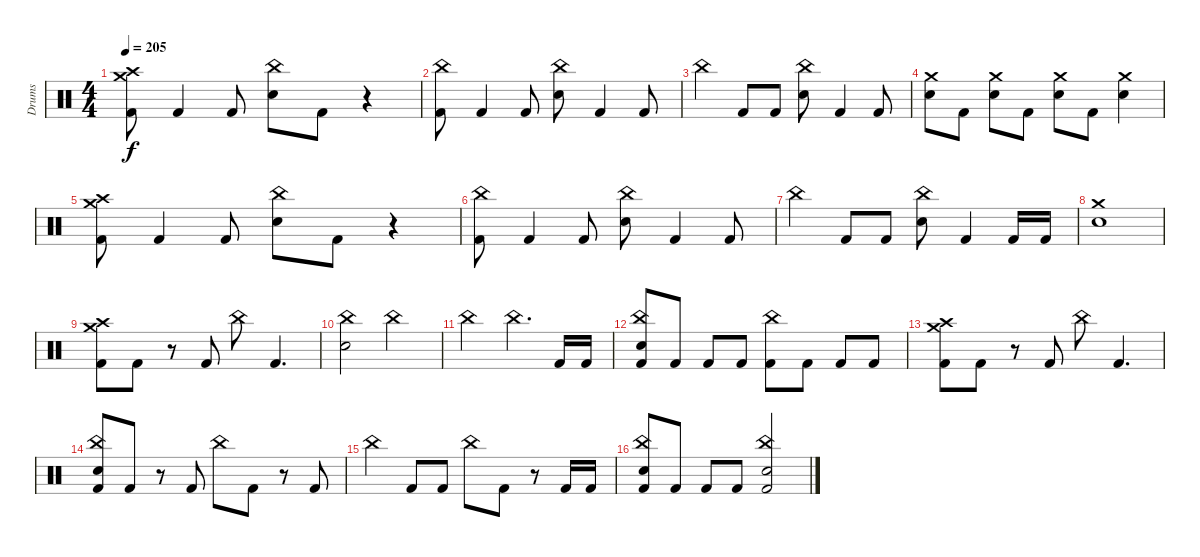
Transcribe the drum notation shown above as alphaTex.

\track ("Drums" "Drums") {instrument percussion}
\staff {score}
\articulation defaults
\ts (4 4)
\tempo 205
\clef neutral
\ks c
("Crash medium (hit)" "Crash high (hit)" "Kick (hit) 2").8{dy f} "Kick (hit) 2".4 "Kick (hit) 2".8 ("China (hit)" "Electric Snare (hit)").8 "Kick (hit) 2".8 r.4 |
("China (hit)" "Kick (hit) 2").8 "Kick (hit) 2".4 "Kick (hit) 2".8 ("China (hit)" "Electric Snare (hit)").8 "Kick (hit) 2".4 "Kick (hit) 2".8 |
"China (hit)".4 "Kick (hit) 2".8 "Kick (hit) 2".8 ("China (hit)" "Electric Snare (hit)").8 "Kick (hit) 2".4 "Kick (hit) 2".8 |
("Crash medium (hit)" "Electric Snare (hit)").8 "Kick (hit) 2".8 ("Crash medium (hit)" "Electric Snare (hit)").8 "Kick (hit) 2".8 ("Crash medium (hit)" "Electric Snare (hit)").8 "Kick (hit) 2".8 ("Crash medium (hit)" "Electric Snare (hit)").4 |
("Crash medium (hit)" "Crash high (hit)" "Kick (hit) 2").8 "Kick (hit) 2".4 "Kick (hit) 2".8 ("China (hit)" "Electric Snare (hit)").8 "Kick (hit) 2".8 r.4 |
("China (hit)" "Kick (hit) 2").8 "Kick (hit) 2".4 "Kick (hit) 2".8 ("China (hit)" "Electric Snare (hit)").8 "Kick (hit) 2".4 "Kick (hit) 2".8 |
"China (hit)".4 "Kick (hit) 2".8 "Kick (hit) 2".8 ("China (hit)" "Electric Snare (hit)").8 "Kick (hit) 2".4 "Kick (hit) 2".16 "Kick (hit) 2".16 |
("Crash medium (hit)" "Electric Snare (hit)").1 |
("Crash medium (hit)" "Crash high (hit)" "Kick (hit) 2").8 "Kick (hit) 2".8 r.8 "Kick (hit) 2".8 "China (hit)".8 "Kick (hit) 2".4{d} |
("China (hit)" "Electric Snare (hit)").2 "China (hit)".2 |
"China (hit)".2 "China (hit)".4{d} "Kick (hit) 2".16 "Kick (hit) 2".16 |
("China (hit)" "Electric Snare (hit)" "Kick (hit) 2").8 "Kick (hit) 2".8 "Kick (hit) 2".8 "Kick (hit) 2".8 ("China (hit)" "Kick (hit) 2").8 "Kick (hit) 2".8 "Kick (hit) 2".8 "Kick (hit) 2".8 |
("Crash medium (hit)" "Crash high (hit)" "Kick (hit) 2").8 "Kick (hit) 2".8 r.8 "Kick (hit) 2".8 "China (hit)".8 "Kick (hit) 2".4{d} |
("China (hit)" "Electric Snare (hit)" "Kick (hit) 2").8 "Kick (hit) 2".8 r.8 "Kick (hit) 2".8 "China (hit)".8 "Kick (hit) 2".8 r.8 "Kick (hit) 2".8 |
"China (hit)".4 "Kick (hit) 2".8 "Kick (hit) 2".8 "China (hit)".8 "Kick (hit) 2".8 r.8 "Kick (hit) 2".16 "Kick (hit) 2".16 |
("China (hit)" "Electric Snare (hit)" "Kick (hit) 2").8 "Kick (hit) 2".8 "Kick (hit) 2".8 "Kick (hit) 2".8 ("China (hit)" "Electric Snare (hit)" "Kick (hit) 2").2
